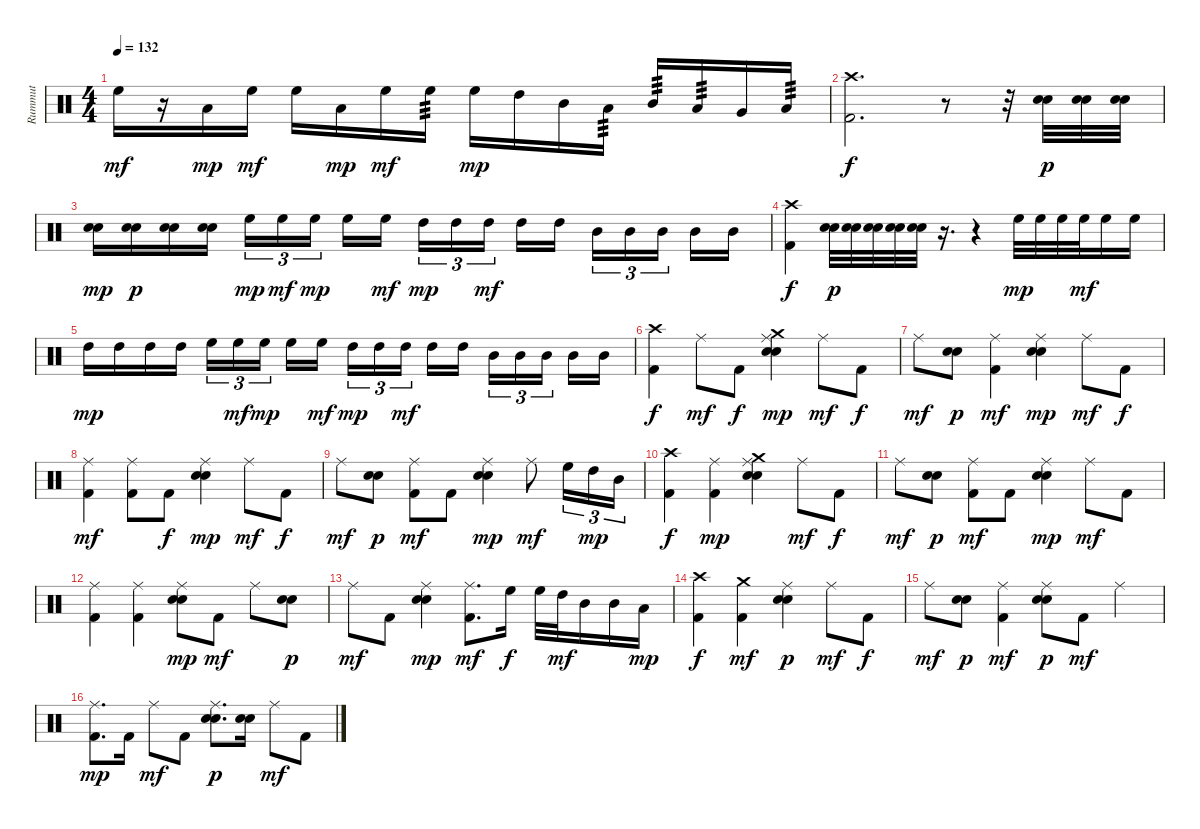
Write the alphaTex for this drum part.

\track ("Rummut" "Rummut") {instrument percussion}
\staff {score}
\articulation defaults
\ts (4 4)
\tempo 132
\clef neutral
\ks c "High Floor Tom (hit)".16{dy mf}
r.16 "Low Tom (hit)".16{dy mp} "High Floor Tom (hit)".16{dy mf} "High Floor Tom (hit)".16 "Low Tom (hit)".16{dy mp} "High Floor Tom (hit)".16{dy mf} "High Floor Tom (hit)".16{tp 3} "High Floor Tom (hit)".16{dy mp} "High Tom (hit)".16 "Mid Tom (hit)".16 "Low Tom (hit)".16{tp 3} "Mid Tom (hit)".16{tp 3} "Low Tom (hit)".16{tp 3} "Very Low Tom (hit)".16 "Low Floor Tom (hit)".16{tp 3} |
("Crash high (hit)" "Kick (hit) 2").2{d dy f} r.8 r.32 ("Electric Snare (hit)" "Snare (hit) 2").32{dy p} ("Electric Snare (hit)" "Snare (hit) 2").32 ("Electric Snare (hit)" "Snare (hit) 2").32 |
("Electric Snare (hit)" "Snare (hit) 2").16{dy mp} ("Electric Snare (hit)" "Snare (hit) 2").16{dy p} ("Electric Snare (hit)" "Snare (hit) 2").16 ("Electric Snare (hit)" "Snare (hit) 2").16 "High Floor Tom (hit)".16{tu (3 2) dy mp} "High Floor Tom (hit)".16{tu (3 2) dy mf} "High Floor Tom (hit)".16{tu (3 2) dy mp beam splitsecondary} "High Floor Tom (hit)".16 "High Floor Tom (hit)".16{dy mf} "High Tom (hit)".16{tu (3 2) dy mp} "High Tom (hit)".16{tu (3 2)} "High Tom (hit)".16{tu (3 2) dy mf beam splitsecondary} "High Tom (hit)".16 "High Tom (hit)".16 "Mid Tom (hit)".16{tu (3 2)} "Mid Tom (hit)".16{tu (3 2)} "Mid Tom (hit)".16{tu (3 2) beam splitsecondary} "Mid Tom (hit)".16 "Mid Tom (hit)".16 |
("Crash high (hit)" "Kick (hit) 2").4{dy f} ("Electric Snare (hit)" "Snare (hit) 2").32{dy p} ("Electric Snare (hit)" "Snare (hit) 2").32 ("Electric Snare (hit)" "Snare (hit) 2").32 ("Electric Snare (hit)" "Snare (hit) 2").32 ("Electric Snare (hit)" "Snare (hit) 2").32 r.16{d} r.4 "High Floor Tom (hit)".32{dy mp} "High Floor Tom (hit)".32 "High Floor Tom (hit)".32 "High Floor Tom (hit)".32{dy mf} "High Floor Tom (hit)".16 "High Floor Tom (hit)".16 |
"High Tom (hit)".16{dy mp} "High Tom (hit)".16 "High Tom (hit)".16 "High Tom (hit)".16 "High Floor Tom (hit)".16{tu (3 2)} "High Floor Tom (hit)".16{tu (3 2) dy mf} "High Floor Tom (hit)".16{tu (3 2) dy mp beam splitsecondary} "High Floor Tom (hit)".16 "High Floor Tom (hit)".16{dy mf} "High Tom (hit)".16{tu (3 2) dy mp} "High Tom (hit)".16{tu (3 2)} "High Tom (hit)".16{tu (3 2) dy mf beam splitsecondary} "High Tom (hit)".16 "High Tom (hit)".16 "Mid Tom (hit)".16{tu (3 2)} "Mid Tom (hit)".16{tu (3 2)} "Mid Tom (hit)".16{tu (3 2) beam splitsecondary} "Mid Tom (hit)".16 "Mid Tom (hit)".16 |
("Crash high (hit)" "Kick (hit) 2").4{dy f} "Ride (middle)".8{dy mf} "Kick (hit) 2".8{dy f} ("Crash medium (hit)" "Ride (middle)" "Electric Snare (hit)" "Snare (hit) 2").4{dy mp} "Ride (middle)".8{dy mf} "Kick (hit) 2".8{dy f} |
"Ride (middle)".8{dy mf} ("Electric Snare (hit)" "Snare (hit) 2").8{dy p} ("Ride (middle)" "Kick (hit) 2").4{dy mf} ("Ride (middle)" "Electric Snare (hit)" "Snare (hit) 2").4{dy mp} "Ride (middle)".8{dy mf} "Kick (hit) 2".8{dy f} |
("Ride (middle)" "Kick (hit) 2").4{dy mf} ("Ride (middle)" "Kick (hit) 2").8 "Kick (hit) 2".8{dy f} ("Ride (middle)" "Electric Snare (hit)" "Snare (hit) 2").4{dy mp} "Ride (middle)".8{dy mf} "Kick (hit) 2".8{dy f} |
"Ride (middle)".8{dy mf} ("Electric Snare (hit)" "Snare (hit) 2").8{dy p} ("Ride (middle)" "Kick (hit) 2").8{dy mf} "Kick (hit) 2".8 ("Ride (middle)" "Electric Snare (hit)" "Snare (hit) 2").4{dy mp} "Ride (middle)".8{dy mf} "High Floor Tom (hit)".16{tu (3 2)} "High Tom (hit)".16{tu (3 2) dy mp} "Mid Tom (hit)".16{tu (3 2)} |
("Crash high (hit)" "Kick (hit) 2").4{dy f} ("Ride (middle)" "Kick (hit) 2").4{dy mp} ("Crash medium (hit)" "Ride (middle)" "Electric Snare (hit)" "Snare (hit) 2").4 "Ride (middle)".8{dy mf} "Kick (hit) 2".8{dy f} |
"Ride (middle)".8{dy mf} ("Electric Snare (hit)" "Snare (hit) 2").8{dy p} ("Ride (middle)" "Kick (hit) 2").8{dy mf} "Kick (hit) 2".8 ("Ride (middle)" "Electric Snare (hit)" "Snare (hit) 2").4{dy mp} "Ride (middle)".8{dy mf} "Kick (hit) 2".8 |
("Ride (middle)" "Kick (hit) 2").4 ("Ride (middle)" "Kick (hit) 2").4 ("Ride (middle)" "Electric Snare (hit)" "Snare (hit) 2").8{dy mp} "Kick (hit) 2".8{dy mf} "Ride (middle)".8 ("Electric Snare (hit)" "Snare (hit) 2").8{dy p} |
"Ride (middle)".8{dy mf} "Kick (hit) 2".8 ("Ride (middle)" "Electric Snare (hit)" "Snare (hit) 2").4{dy mp} ("Ride (middle)" "Kick (hit) 2").8{d dy mf} "High Floor Tom (hit)".16{dy f} "High Floor Tom (hit)".32 "High Tom (hit)".32{dy mf} "Mid Tom (hit)".16 "Mid Tom (hit)".16 "Low Tom (hit)".16{dy mp} |
("Crash high (hit)" "Kick (hit) 2").4{dy f} ("Crash medium (hit)" "Kick (hit) 2").4{dy mf} ("Ride (middle)" "Electric Snare (hit)" "Snare (hit) 2").4{dy p} "Ride (middle)".8{dy mf} "Kick (hit) 2".8{dy f} |
"Ride (middle)".8{dy mf} ("Electric Snare (hit)" "Snare (hit) 2").8{dy p} ("Ride (middle)" "Kick (hit) 2").4{dy mf} ("Ride (middle)" "Electric Snare (hit)" "Snare (hit) 2").8{dy p} "Kick (hit) 2".8{dy mf} "Ride (middle)".4 |
("Ride (middle)" "Kick (hit) 2").8{d dy mp} "Kick (hit) 2".16 "Ride (middle)".8{dy mf} "Kick (hit) 2".8 ("Ride (middle)" "Electric Snare (hit)" "Snare (hit) 2").8{d dy p} ("Electric Snare (hit)" "Snare (hit) 2").16 "Ride (middle)".8{dy mf} "Kick (hit) 2".8
